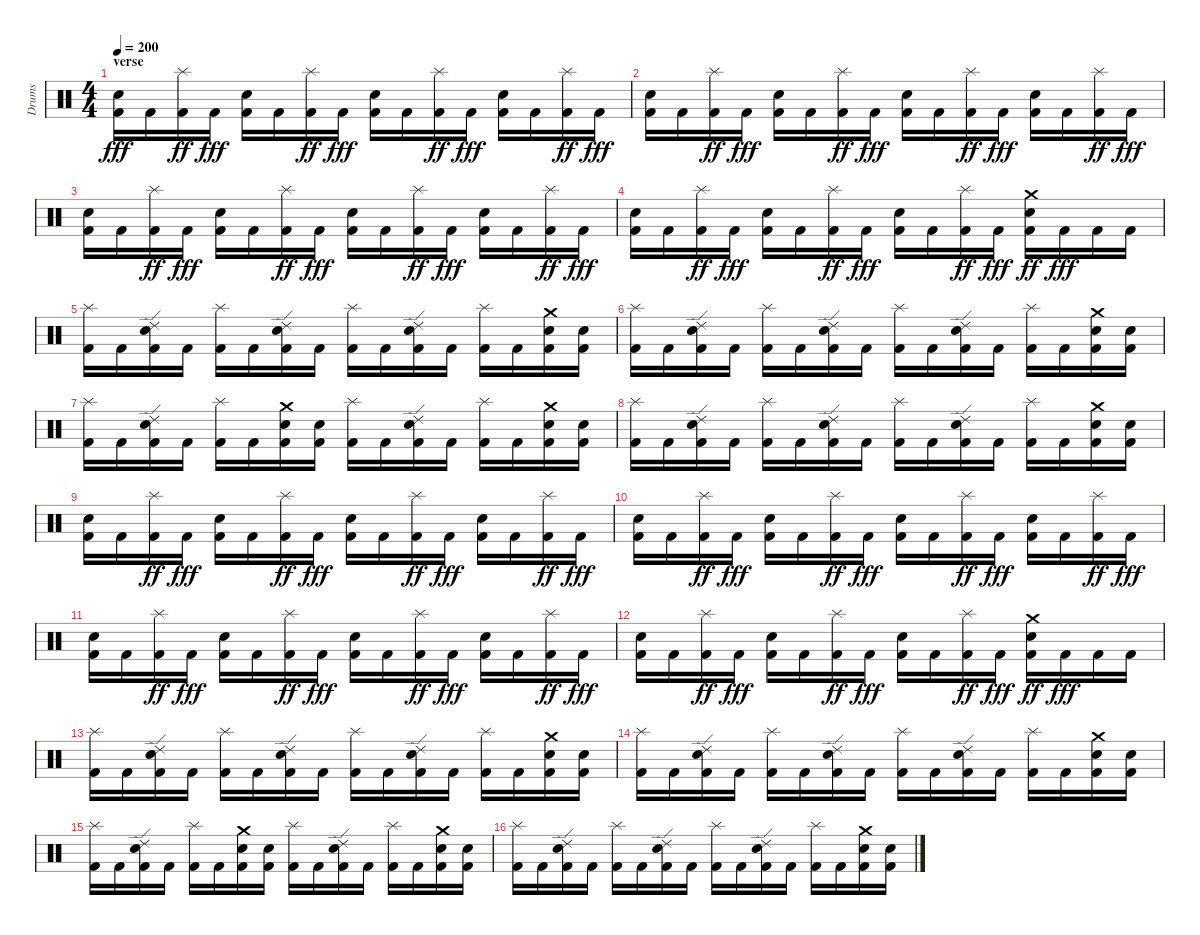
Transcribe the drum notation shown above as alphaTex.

\track ("Drums" "Drums") {instrument percussion}
\staff {score}
\articulation defaults
\ts (4 4)
\section ("" "verse")
\tempo 200
\clef neutral
\ks c
("Kick (hit) 2" "Snare (hit) 2").16{dy fff} "Kick (hit) 2".16 ("Kick (hit) 2" "Splash (hit)").16{dy ff} "Kick (hit) 2".16{dy fff} ("Kick (hit) 2" "Snare (hit) 2").16 "Kick (hit) 2".16 ("Kick (hit) 2" "Splash (hit)").16{dy ff} "Kick (hit) 2".16{dy fff} ("Kick (hit) 2" "Snare (hit) 2").16 "Kick (hit) 2".16 ("Kick (hit) 2" "Splash (hit)").16{dy ff} "Kick (hit) 2".16{dy fff} ("Kick (hit) 2" "Snare (hit) 2").16 "Kick (hit) 2".16 ("Kick (hit) 2" "Splash (hit)").16{dy ff} "Kick (hit) 2".16{dy fff} |
("Kick (hit) 2" "Snare (hit) 2").16 "Kick (hit) 2".16 ("Kick (hit) 2" "Splash (hit)").16{dy ff} "Kick (hit) 2".16{dy fff} ("Kick (hit) 2" "Snare (hit) 2").16 "Kick (hit) 2".16 ("Kick (hit) 2" "Splash (hit)").16{dy ff} "Kick (hit) 2".16{dy fff} ("Kick (hit) 2" "Snare (hit) 2").16 "Kick (hit) 2".16 ("Kick (hit) 2" "Splash (hit)").16{dy ff} "Kick (hit) 2".16{dy fff} ("Kick (hit) 2" "Snare (hit) 2").16 "Kick (hit) 2".16 ("Kick (hit) 2" "Splash (hit)").16{dy ff} "Kick (hit) 2".16{dy fff} |
("Kick (hit) 2" "Snare (hit) 2").16 "Kick (hit) 2".16 ("Kick (hit) 2" "Splash (hit)").16{dy ff} "Kick (hit) 2".16{dy fff} ("Kick (hit) 2" "Snare (hit) 2").16 "Kick (hit) 2".16 ("Kick (hit) 2" "Splash (hit)").16{dy ff} "Kick (hit) 2".16{dy fff} ("Kick (hit) 2" "Snare (hit) 2").16 "Kick (hit) 2".16 ("Kick (hit) 2" "Splash (hit)").16{dy ff} "Kick (hit) 2".16{dy fff} ("Kick (hit) 2" "Snare (hit) 2").16 "Kick (hit) 2".16 ("Kick (hit) 2" "Splash (hit)").16{dy ff} "Kick (hit) 2".16{dy fff} |
("Kick (hit) 2" "Snare (hit) 2").16 "Kick (hit) 2".16 ("Kick (hit) 2" "Splash (hit)").16{dy ff} "Kick (hit) 2".16{dy fff} ("Kick (hit) 2" "Snare (hit) 2").16 "Kick (hit) 2".16 ("Kick (hit) 2" "Splash (hit)").16{dy ff} "Kick (hit) 2".16{dy fff} ("Kick (hit) 2" "Snare (hit) 2").16 "Kick (hit) 2".16 ("Kick (hit) 2" "Splash (hit)").16{dy ff} "Kick (hit) 2".16{dy fff} ("Kick (hit) 2" "Electric Snare (hit)" "Crash medium (hit)").16{dy ff} "Kick (hit) 2".16{dy fff} "Kick (hit) 2".16 "Kick (hit) 2".16 |
("Kick (hit) 2" "Splash (hit)").16 "Kick (hit) 2".16 ("Kick (hit) 2" "Electric Snare (hit)" "Ride (edge) 2").16 "Kick (hit) 2".16 ("Kick (hit) 2" "Splash (hit)").16 "Kick (hit) 2".16 ("Kick (hit) 2" "Electric Snare (hit)" "Ride (edge) 2").16 "Kick (hit) 2".16 ("Kick (hit) 2" "Splash (hit)").16 "Kick (hit) 2".16 ("Kick (hit) 2" "Electric Snare (hit)" "Ride (edge) 2").16 "Kick (hit) 2".16 ("Kick (hit) 2" "Splash (hit)").16 "Kick (hit) 2".16 ("Kick (hit) 2" "Electric Snare (hit)" "Crash medium (hit)").16 ("Kick (hit) 2" "Electric Snare (hit)").16 |
("Kick (hit) 2" "Splash (hit)").16 "Kick (hit) 2".16 ("Kick (hit) 2" "Electric Snare (hit)" "Ride (edge) 2").16 "Kick (hit) 2".16 ("Kick (hit) 2" "Splash (hit)").16 "Kick (hit) 2".16 ("Kick (hit) 2" "Electric Snare (hit)" "Ride (edge) 2").16 "Kick (hit) 2".16 ("Kick (hit) 2" "Splash (hit)").16 "Kick (hit) 2".16 ("Kick (hit) 2" "Electric Snare (hit)" "Ride (edge) 2").16 "Kick (hit) 2".16 ("Kick (hit) 2" "Splash (hit)").16 "Kick (hit) 2".16 ("Kick (hit) 2" "Electric Snare (hit)" "Crash medium (hit)").16 ("Kick (hit) 2" "Electric Snare (hit)").16 |
("Kick (hit) 2" "Splash (hit)").16 "Kick (hit) 2".16 ("Kick (hit) 2" "Electric Snare (hit)" "Ride (edge) 2").16 "Kick (hit) 2".16 ("Kick (hit) 2" "Splash (hit)").16 "Kick (hit) 2".16 ("Kick (hit) 2" "Electric Snare (hit)" "Crash medium (hit)").16 ("Kick (hit) 2" "Electric Snare (hit)").16 ("Kick (hit) 2" "Splash (hit)").16 "Kick (hit) 2".16 ("Kick (hit) 2" "Electric Snare (hit)" "Ride (edge) 2").16 "Kick (hit) 2".16 ("Kick (hit) 2" "Splash (hit)").16 "Kick (hit) 2".16 ("Kick (hit) 2" "Electric Snare (hit)" "Crash medium (hit)").16 ("Kick (hit) 2" "Electric Snare (hit)").16 |
("Kick (hit) 2" "Splash (hit)").16 "Kick (hit) 2".16 ("Kick (hit) 2" "Electric Snare (hit)" "Ride (edge) 2").16 "Kick (hit) 2".16 ("Kick (hit) 2" "Splash (hit)").16 "Kick (hit) 2".16 ("Kick (hit) 2" "Electric Snare (hit)" "Ride (edge) 2").16 "Kick (hit) 2".16 ("Kick (hit) 2" "Splash (hit)").16 "Kick (hit) 2".16 ("Kick (hit) 2" "Electric Snare (hit)" "Ride (edge) 2").16 "Kick (hit) 2".16 ("Kick (hit) 2" "Splash (hit)").16 "Kick (hit) 2".16 ("Kick (hit) 2" "Electric Snare (hit)" "Crash medium (hit)").16 ("Kick (hit) 2" "Electric Snare (hit)").16 |
("Kick (hit) 2" "Snare (hit) 2").16 "Kick (hit) 2".16 ("Kick (hit) 2" "Splash (hit)").16{dy ff} "Kick (hit) 2".16{dy fff} ("Kick (hit) 2" "Snare (hit) 2").16 "Kick (hit) 2".16 ("Kick (hit) 2" "Splash (hit)").16{dy ff} "Kick (hit) 2".16{dy fff} ("Kick (hit) 2" "Snare (hit) 2").16 "Kick (hit) 2".16 ("Kick (hit) 2" "Splash (hit)").16{dy ff} "Kick (hit) 2".16{dy fff} ("Kick (hit) 2" "Snare (hit) 2").16 "Kick (hit) 2".16 ("Kick (hit) 2" "Splash (hit)").16{dy ff} "Kick (hit) 2".16{dy fff} |
("Kick (hit) 2" "Snare (hit) 2").16 "Kick (hit) 2".16 ("Kick (hit) 2" "Splash (hit)").16{dy ff} "Kick (hit) 2".16{dy fff} ("Kick (hit) 2" "Snare (hit) 2").16 "Kick (hit) 2".16 ("Kick (hit) 2" "Splash (hit)").16{dy ff} "Kick (hit) 2".16{dy fff} ("Kick (hit) 2" "Snare (hit) 2").16 "Kick (hit) 2".16 ("Kick (hit) 2" "Splash (hit)").16{dy ff} "Kick (hit) 2".16{dy fff} ("Kick (hit) 2" "Snare (hit) 2").16 "Kick (hit) 2".16 ("Kick (hit) 2" "Splash (hit)").16{dy ff} "Kick (hit) 2".16{dy fff} |
("Kick (hit) 2" "Snare (hit) 2").16 "Kick (hit) 2".16 ("Kick (hit) 2" "Splash (hit)").16{dy ff} "Kick (hit) 2".16{dy fff} ("Kick (hit) 2" "Snare (hit) 2").16 "Kick (hit) 2".16 ("Kick (hit) 2" "Splash (hit)").16{dy ff} "Kick (hit) 2".16{dy fff} ("Kick (hit) 2" "Snare (hit) 2").16 "Kick (hit) 2".16 ("Kick (hit) 2" "Splash (hit)").16{dy ff} "Kick (hit) 2".16{dy fff} ("Kick (hit) 2" "Snare (hit) 2").16 "Kick (hit) 2".16 ("Kick (hit) 2" "Splash (hit)").16{dy ff} "Kick (hit) 2".16{dy fff} |
("Kick (hit) 2" "Snare (hit) 2").16 "Kick (hit) 2".16 ("Kick (hit) 2" "Splash (hit)").16{dy ff} "Kick (hit) 2".16{dy fff} ("Kick (hit) 2" "Snare (hit) 2").16 "Kick (hit) 2".16 ("Kick (hit) 2" "Splash (hit)").16{dy ff} "Kick (hit) 2".16{dy fff} ("Kick (hit) 2" "Snare (hit) 2").16 "Kick (hit) 2".16 ("Kick (hit) 2" "Splash (hit)").16{dy ff} "Kick (hit) 2".16{dy fff} ("Kick (hit) 2" "Electric Snare (hit)" "Crash medium (hit)").16{dy ff} "Kick (hit) 2".16{dy fff} "Kick (hit) 2".16 "Kick (hit) 2".16 |
("Kick (hit) 2" "Splash (hit)").16 "Kick (hit) 2".16 ("Kick (hit) 2" "Electric Snare (hit)" "Ride (edge) 2").16 "Kick (hit) 2".16 ("Kick (hit) 2" "Splash (hit)").16 "Kick (hit) 2".16 ("Kick (hit) 2" "Electric Snare (hit)" "Ride (edge) 2").16 "Kick (hit) 2".16 ("Kick (hit) 2" "Splash (hit)").16 "Kick (hit) 2".16 ("Kick (hit) 2" "Electric Snare (hit)" "Ride (edge) 2").16 "Kick (hit) 2".16 ("Kick (hit) 2" "Splash (hit)").16 "Kick (hit) 2".16 ("Kick (hit) 2" "Electric Snare (hit)" "Crash medium (hit)").16 ("Kick (hit) 2" "Electric Snare (hit)").16 |
("Kick (hit) 2" "Splash (hit)").16 "Kick (hit) 2".16 ("Kick (hit) 2" "Electric Snare (hit)" "Ride (edge) 2").16 "Kick (hit) 2".16 ("Kick (hit) 2" "Splash (hit)").16 "Kick (hit) 2".16 ("Kick (hit) 2" "Electric Snare (hit)" "Ride (edge) 2").16 "Kick (hit) 2".16 ("Kick (hit) 2" "Splash (hit)").16 "Kick (hit) 2".16 ("Kick (hit) 2" "Electric Snare (hit)" "Ride (edge) 2").16 "Kick (hit) 2".16 ("Kick (hit) 2" "Splash (hit)").16 "Kick (hit) 2".16 ("Kick (hit) 2" "Electric Snare (hit)" "Crash medium (hit)").16 ("Kick (hit) 2" "Electric Snare (hit)").16 |
("Kick (hit) 2" "Splash (hit)").16 "Kick (hit) 2".16 ("Kick (hit) 2" "Electric Snare (hit)" "Ride (edge) 2").16 "Kick (hit) 2".16 ("Kick (hit) 2" "Splash (hit)").16 "Kick (hit) 2".16 ("Kick (hit) 2" "Electric Snare (hit)" "Crash medium (hit)").16 ("Kick (hit) 2" "Electric Snare (hit)").16 ("Kick (hit) 2" "Splash (hit)").16 "Kick (hit) 2".16 ("Kick (hit) 2" "Electric Snare (hit)" "Ride (edge) 2").16 "Kick (hit) 2".16 ("Kick (hit) 2" "Splash (hit)").16 "Kick (hit) 2".16 ("Kick (hit) 2" "Electric Snare (hit)" "Crash medium (hit)").16 ("Kick (hit) 2" "Electric Snare (hit)").16 |
("Kick (hit) 2" "Splash (hit)").16 "Kick (hit) 2".16 ("Kick (hit) 2" "Electric Snare (hit)" "Ride (edge) 2").16 "Kick (hit) 2".16 ("Kick (hit) 2" "Splash (hit)").16 "Kick (hit) 2".16 ("Kick (hit) 2" "Electric Snare (hit)" "Ride (edge) 2").16 "Kick (hit) 2".16 ("Kick (hit) 2" "Splash (hit)").16 "Kick (hit) 2".16 ("Kick (hit) 2" "Electric Snare (hit)" "Ride (edge) 2").16 "Kick (hit) 2".16 ("Kick (hit) 2" "Splash (hit)").16 "Kick (hit) 2".16 ("Kick (hit) 2" "Electric Snare (hit)" "Crash medium (hit)").16 ("Kick (hit) 2" "Electric Snare (hit)").16
